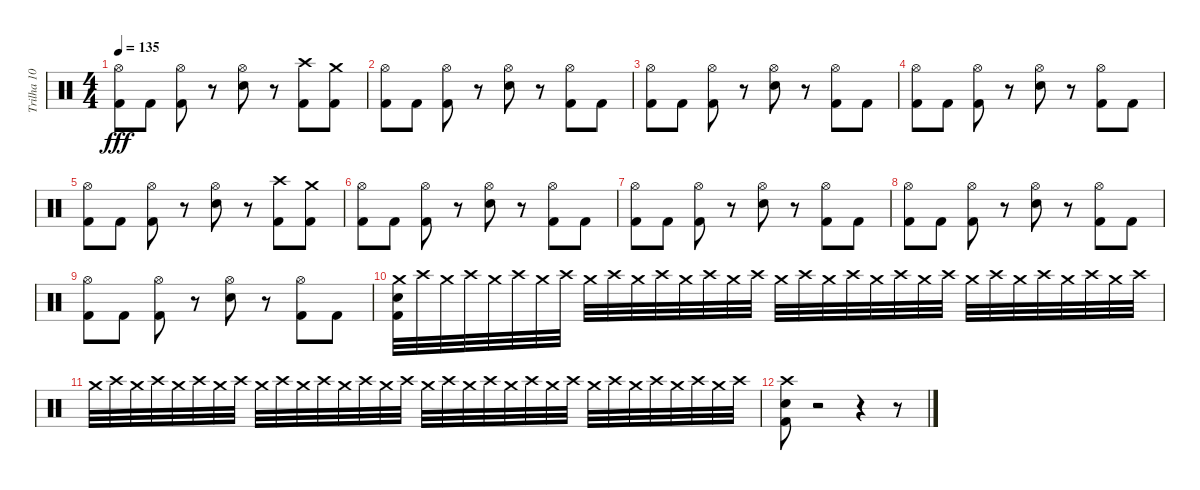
\track ("Trilha 10" "Trilha 10") {instrument percussion}
\staff {score}
\articulation defaults
\ts (4 4)
\tempo 135
\clef neutral
\ks c
("Hi-Hat (open)" "Kick (hit) 2").8{dy fff} "Kick (hit) 2".8 ("Kick (hit) 2" "Hi-Hat (open)").8 r.8 ("Electric Snare (hit)" "Hi-Hat (open)").8 r.8 ("Kick (hit) 2" "Crash high (hit)").8 ("Kick (hit) 2" "Crash medium (hit)").8 |
("Kick (hit) 2" "Hi-Hat (open)").8 "Kick (hit) 2".8 ("Kick (hit) 2" "Hi-Hat (open)").8 r.8 ("Electric Snare (hit)" "Hi-Hat (open)").8 r.8 ("Kick (hit) 2" "Hi-Hat (open)").8 "Kick (hit) 2".8 |
("Kick (hit) 2" "Hi-Hat (open)").8 "Kick (hit) 2".8 ("Kick (hit) 2" "Hi-Hat (open)").8 r.8 ("Electric Snare (hit)" "Hi-Hat (open)").8 r.8 ("Kick (hit) 2" "Hi-Hat (open)").8 "Kick (hit) 2".8 |
("Kick (hit) 2" "Hi-Hat (open)").8 "Kick (hit) 2".8 ("Kick (hit) 2" "Hi-Hat (open)").8 r.8 ("Electric Snare (hit)" "Hi-Hat (open)").8 r.8 ("Kick (hit) 2" "Hi-Hat (open)").8 "Kick (hit) 2".8 |
("Kick (hit) 2" "Hi-Hat (open)").8 "Kick (hit) 2".8 ("Kick (hit) 2" "Hi-Hat (open)").8 r.8 ("Electric Snare (hit)" "Hi-Hat (open)").8 r.8 ("Kick (hit) 2" "Crash high (hit)").8 ("Kick (hit) 2" "Crash medium (hit)").8 |
("Kick (hit) 2" "Hi-Hat (open)").8 "Kick (hit) 2".8 ("Kick (hit) 2" "Hi-Hat (open)").8 r.8 ("Electric Snare (hit)" "Hi-Hat (open)").8 r.8 ("Kick (hit) 2" "Hi-Hat (open)").8 "Kick (hit) 2".8 |
("Kick (hit) 2" "Hi-Hat (open)").8 "Kick (hit) 2".8 ("Kick (hit) 2" "Hi-Hat (open)").8 r.8 ("Electric Snare (hit)" "Hi-Hat (open)").8 r.8 ("Kick (hit) 2" "Hi-Hat (open)").8 "Kick (hit) 2".8 |
("Kick (hit) 2" "Hi-Hat (open)").8 "Kick (hit) 2".8 ("Kick (hit) 2" "Hi-Hat (open)").8 r.8 ("Electric Snare (hit)" "Hi-Hat (open)").8 r.8 ("Kick (hit) 2" "Hi-Hat (open)").8 "Kick (hit) 2".8 |
("Hi-Hat (open)" "Kick (hit) 2").8 "Kick (hit) 2".8 ("Kick (hit) 2" "Hi-Hat (open)").8 r.8 ("Electric Snare (hit)" "Hi-Hat (open)").8 r.8 ("Hi-Hat (open)" "Kick (hit) 2").8 "Kick (hit) 2".8 |
("Crash medium (hit)" "Electric Snare (hit)" "Kick (hit) 2").32 "Crash high (hit)".32 "Crash medium (hit)".32 "Crash high (hit)".32 "Crash medium (hit)".32 "Crash high (hit)".32 "Crash medium (hit)".32 "Crash high (hit)".32 "Crash medium (hit)".32 "Crash high (hit)".32 "Crash medium (hit)".32 "Crash high (hit)".32 "Crash medium (hit)".32 "Crash high (hit)".32 "Crash medium (hit)".32 "Crash high (hit)".32 "Crash medium (hit)".32 "Crash high (hit)".32 "Crash medium (hit)".32 "Crash high (hit)".32 "Crash medium (hit)".32 "Crash high (hit)".32 "Crash medium (hit)".32 "Crash high (hit)".32 "Crash medium (hit)".32 "Crash high (hit)".32 "Crash medium (hit)".32 "Crash high (hit)".32 "Crash medium (hit)".32 "Crash high (hit)".32 "Crash medium (hit)".32 "Crash high (hit)".32 |
"Crash medium (hit)".32 "Crash high (hit)".32 "Crash medium (hit)".32 "Crash high (hit)".32 "Crash medium (hit)".32 "Crash high (hit)".32 "Crash medium (hit)".32 "Crash high (hit)".32 "Crash medium (hit)".32 "Crash high (hit)".32 "Crash medium (hit)".32 "Crash high (hit)".32 "Crash medium (hit)".32 "Crash high (hit)".32 "Crash medium (hit)".32 "Crash high (hit)".32 "Crash medium (hit)".32 "Crash high (hit)".32 "Crash medium (hit)".32 "Crash high (hit)".32 "Crash medium (hit)".32 "Crash high (hit)".32 "Crash medium (hit)".32 "Crash high (hit)".32 "Crash medium (hit)".32 "Crash high (hit)".32 "Crash medium (hit)".32 "Crash high (hit)".32 "Crash medium (hit)".32 "Crash high (hit)".32 "Crash medium (hit)".32 "Crash high (hit)".32 |
("Kick (hit) 2" "Electric Snare (hit)" "Crash high (hit)").8 r.2 r.4 r.8
